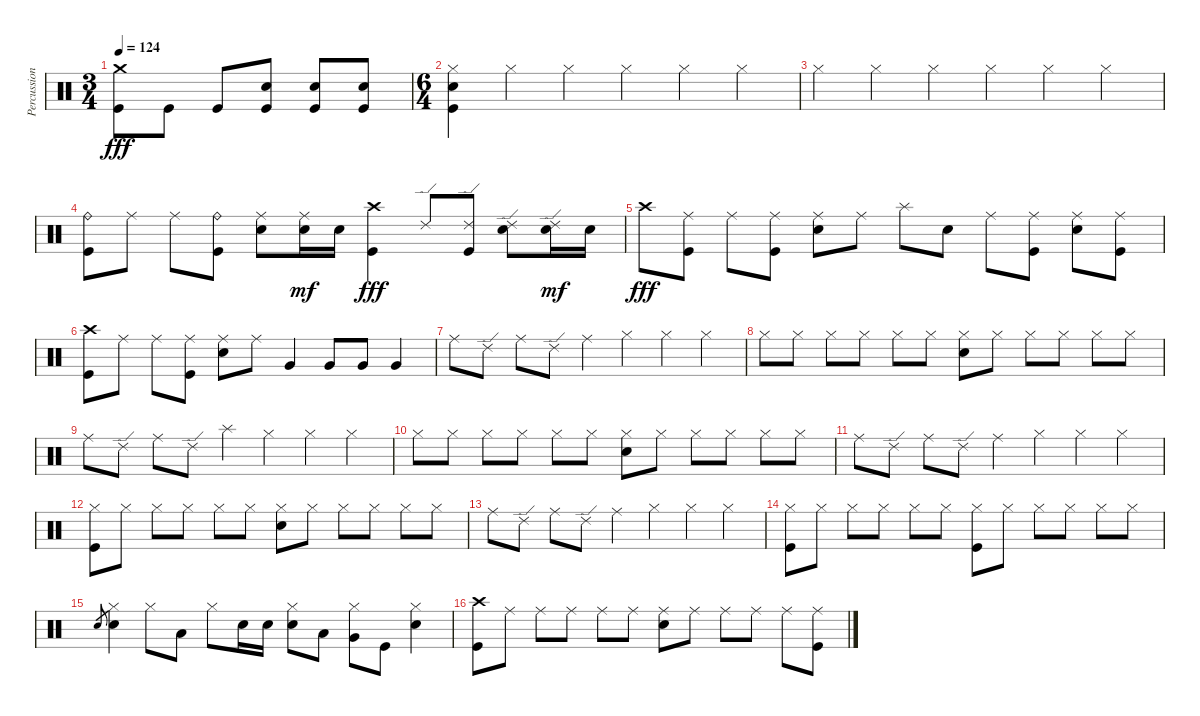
\track ("Percussion" "Percussion") {instrument percussion}
\staff {score}
\articulation defaults
\ts (3 4)
\tempo 124
\clef neutral
\ks c
("Crash medium (hit)" "Kick (hit)").8{dy fff} "Kick (hit)".8 "Kick (hit)".8 ("Snare (hit) 2" "Kick (hit)").8 ("Snare (hit) 2" "Kick (hit)").8 ("Snare (hit) 2" "Kick (hit)").8 |
\ts (6 4)
("Hi-Hat (closed)" "Snare (hit) 2" "Kick (hit)").4 "Hi-Hat (closed)".4 "Hi-Hat (closed)".4 "Hi-Hat (closed)".4 "Hi-Hat (closed)".4 "Hi-Hat (closed)".4 |
"Hi-Hat (closed)".4 "Hi-Hat (closed)".4 "Hi-Hat (closed)".4 "Hi-Hat (closed)".4 "Hi-Hat (closed)".4 "Hi-Hat (closed)".4 |
("Ride (bell)" "Kick (hit)").8 "Ride (middle)".8 "Ride (middle)".8 ("Ride (bell)" "Kick (hit)").8 ("Ride (middle)" "Snare (hit) 2").8 ("Ride (middle)" "Snare (hit) 2").16{dy mf} "Snare (hit) 2".16 ("Crash high (hit)" "Kick (hit)").4{dy fff} "Ride (edge) 2".8 ("Ride (edge) 2" "Kick (hit)").8 ("Ride (edge) 2" "Snare (hit) 2").8 ("Ride (edge) 2" "Snare (hit) 2").16{dy mf} "Snare (hit) 2".16 |
"Crash high (hit)".8{dy fff} ("Ride (middle)" "Kick (hit)").8 "Ride (middle)".8 ("Ride (middle)" "Kick (hit)").8 ("Ride (middle)" "Snare (hit) 2").8 "Ride (middle)".8 "Splash (hit)".8 "Snare (hit) 2".8 "Ride (middle)".8 ("Ride (middle)" "Kick (hit)").8 ("Ride (middle)" "Snare (hit) 2").8 ("Ride (middle)" "Kick (hit)").8 |
("Crash high (hit)" "Kick (hit)").8 "Ride (middle)".8 "Ride (middle)".8 ("Ride (middle)" "Kick (hit)").8 ("Ride (middle)" "Snare (hit) 2").8 "Ride (middle)".8 "Very Low Tom (hit)".4 "Very Low Tom (hit)".8 "Very Low Tom (hit)".8 "Very Low Tom (hit)".4 |
"Ride (middle)".8 "Ride (edge) 2".8 "Ride (middle)".8 "Ride (edge) 2".8 "Ride (middle)".4 "Hi-Hat (closed)".4 "Hi-Hat (closed)".4 "Hi-Hat (closed)".4 |
"Hi-Hat (closed)".8 "Hi-Hat (closed)".8 "Hi-Hat (closed)".8 "Hi-Hat (closed)".8 "Hi-Hat (closed)".8 "Hi-Hat (closed)".8 ("Hi-Hat (closed)" "Electric Snare (hit)").8 "Hi-Hat (closed)".8 "Hi-Hat (closed)".8 "Hi-Hat (closed)".8 "Hi-Hat (closed)".8 "Hi-Hat (closed)".8 |
"Ride (middle)".8 "Ride (edge) 2".8 "Ride (middle)".8 "Ride (edge) 2".8 "Splash (hit)".4 "Hi-Hat (closed)".4 "Hi-Hat (closed)".4 "Hi-Hat (closed)".4 |
"Hi-Hat (closed)".8 "Hi-Hat (closed)".8 "Hi-Hat (closed)".8 "Hi-Hat (closed)".8 "Hi-Hat (closed)".8 "Hi-Hat (closed)".8 ("Hi-Hat (closed)" "Electric Snare (hit)").8 "Hi-Hat (closed)".8 "Hi-Hat (closed)".8 "Hi-Hat (closed)".8 "Hi-Hat (closed)".8 "Hi-Hat (closed)".8 |
"Ride (middle)".8 "Ride (edge) 2".8 "Ride (middle)".8 "Ride (edge) 2".8 "Ride (middle)".4 "Hi-Hat (closed)".4 "Hi-Hat (closed)".4 "Hi-Hat (closed)".4 |
("Hi-Hat (closed)" "Kick (hit)").8 "Hi-Hat (closed)".8 "Hi-Hat (closed)".8 "Hi-Hat (closed)".8 "Hi-Hat (closed)".8 "Hi-Hat (closed)".8 ("Hi-Hat (closed)" "Snare (hit) 2").8 "Hi-Hat (closed)".8 "Hi-Hat (closed)".8 "Hi-Hat (closed)".8 "Hi-Hat (closed)".8 "Hi-Hat (closed)".8 |
"Ride (middle)".8 "Ride (edge) 2".8 "Ride (middle)".8 "Ride (edge) 2".8 "Ride (middle)".4 "Hi-Hat (closed)".4 "Hi-Hat (closed)".4 "Hi-Hat (closed)".4 |
("Hi-Hat (closed)" "Kick (hit)").8 "Hi-Hat (closed)".8 "Hi-Hat (closed)".8 "Hi-Hat (closed)".8 "Hi-Hat (closed)".8 "Hi-Hat (closed)".8 ("Hi-Hat (closed)" "Kick (hit)").8 "Hi-Hat (closed)".8 "Hi-Hat (closed)".8 "Hi-Hat (closed)".8 "Hi-Hat (closed)".8 "Hi-Hat (closed)".8 |
"Snare (hit) 2".8{gr} ("Hi-Hat (closed)" "Snare (hit) 2").4 "Hi-Hat (closed)".8 "Low Tom (hit)".8 "Hi-Hat (closed)".8 "Snare (hit) 2".16 "Snare (hit) 2".16 ("Hi-Hat (closed)" "Snare (hit) 2").8 "Low Tom (hit)".8 ("Hi-Hat (closed)" "Very Low Tom (hit)").8 "Kick (hit)".8 ("Hi-Hat (closed)" "Snare (hit) 2").4 |
("Crash high (hit)" "Kick (hit)").8 "Ride (middle)".8 "Ride (middle)".8 "Ride (middle)".8 "Ride (middle)".8 "Ride (middle)".8 ("Ride (middle)" "Snare (hit) 2").8 "Ride (middle)".8 "Ride (middle)".8 "Ride (middle)".8 "Ride (middle)".8 ("Ride (middle)" "Kick (hit)").8
